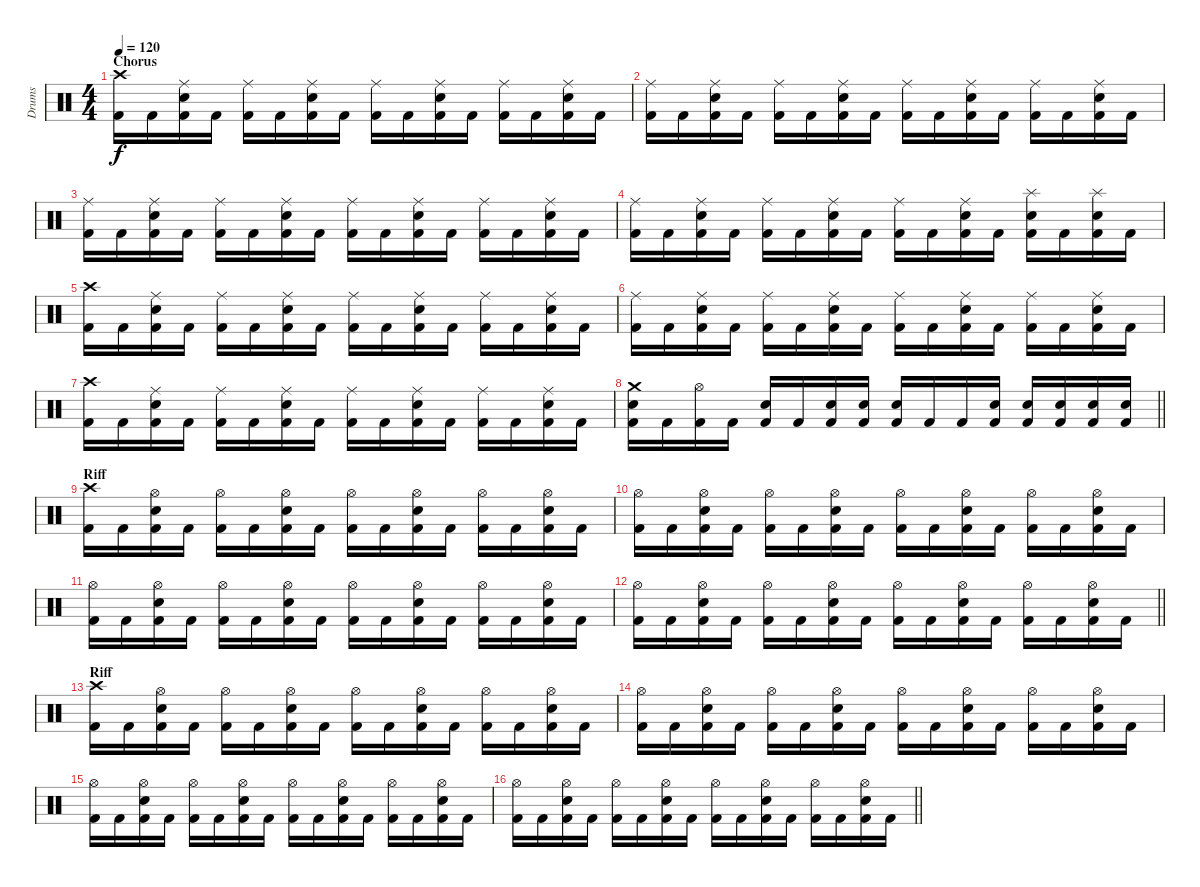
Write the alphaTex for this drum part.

\track ("Drums" "Drums") {instrument percussion}
\staff {score}
\articulation defaults
\ts (4 4)
\section ("" "Chorus")
\tempo 120
\clef neutral
\ks c
("Crash high (hit)" "Kick (hit) 2").16{dy f} "Kick (hit) 2".16 ("Ride (middle)" "Snare (hit) 2" "Kick (hit) 2").16 "Kick (hit) 2".16 ("Ride (middle)" "Kick (hit) 2").16 "Kick (hit) 2".16 ("Ride (middle)" "Snare (hit) 2" "Kick (hit) 2").16 "Kick (hit) 2".16 ("Ride (middle)" "Kick (hit) 2").16 "Kick (hit) 2".16 ("Ride (middle)" "Snare (hit) 2" "Kick (hit) 2").16 "Kick (hit) 2".16 ("Ride (middle)" "Kick (hit) 2").16 "Kick (hit) 2".16 ("Ride (middle)" "Snare (hit) 2" "Kick (hit) 2").16 "Kick (hit) 2".16 |
("Ride (middle)" "Kick (hit) 2").16 "Kick (hit) 2".16 ("Ride (middle)" "Snare (hit) 2" "Kick (hit) 2").16 "Kick (hit) 2".16 ("Ride (middle)" "Kick (hit) 2").16 "Kick (hit) 2".16 ("Ride (middle)" "Snare (hit) 2" "Kick (hit) 2").16 "Kick (hit) 2".16 ("Ride (middle)" "Kick (hit) 2").16 "Kick (hit) 2".16 ("Ride (middle)" "Snare (hit) 2" "Kick (hit) 2").16 "Kick (hit) 2".16 ("Ride (middle)" "Kick (hit) 2").16 "Kick (hit) 2".16 ("Ride (middle)" "Snare (hit) 2" "Kick (hit) 2").16 "Kick (hit) 2".16 |
("Ride (middle)" "Kick (hit) 2").16 "Kick (hit) 2".16 ("Ride (middle)" "Snare (hit) 2" "Kick (hit) 2").16 "Kick (hit) 2".16 ("Ride (middle)" "Kick (hit) 2").16 "Kick (hit) 2".16 ("Ride (middle)" "Snare (hit) 2" "Kick (hit) 2").16 "Kick (hit) 2".16 ("Ride (middle)" "Kick (hit) 2").16 "Kick (hit) 2".16 ("Ride (middle)" "Snare (hit) 2" "Kick (hit) 2").16 "Kick (hit) 2".16 ("Ride (middle)" "Kick (hit) 2").16 "Kick (hit) 2".16 ("Ride (middle)" "Snare (hit) 2" "Kick (hit) 2").16 "Kick (hit) 2".16 |
("Ride (middle)" "Kick (hit) 2").16 "Kick (hit) 2".16 ("Ride (middle)" "Snare (hit) 2" "Kick (hit) 2").16 "Kick (hit) 2".16 ("Ride (middle)" "Kick (hit) 2").16 "Kick (hit) 2".16 ("Ride (middle)" "Snare (hit) 2" "Kick (hit) 2").16 "Kick (hit) 2".16 ("Ride (middle)" "Kick (hit) 2").16 "Kick (hit) 2".16 ("Ride (middle)" "Snare (hit) 2" "Kick (hit) 2").16 "Kick (hit) 2".16 ("Splash (hit)" "Snare (hit) 2" "Kick (hit) 2").16 "Kick (hit) 2".16 ("Splash (hit)" "Snare (hit) 2" "Kick (hit) 2").16 "Kick (hit) 2".16 |
("Crash high (hit)" "Kick (hit) 2").16 "Kick (hit) 2".16 ("Ride (middle)" "Snare (hit) 2" "Kick (hit) 2").16 "Kick (hit) 2".16 ("Ride (middle)" "Kick (hit) 2").16 "Kick (hit) 2".16 ("Ride (middle)" "Snare (hit) 2" "Kick (hit) 2").16 "Kick (hit) 2".16 ("Ride (middle)" "Kick (hit) 2").16 "Kick (hit) 2".16 ("Ride (middle)" "Snare (hit) 2" "Kick (hit) 2").16 "Kick (hit) 2".16 ("Ride (middle)" "Kick (hit) 2").16 "Kick (hit) 2".16 ("Ride (middle)" "Snare (hit) 2" "Kick (hit) 2").16 "Kick (hit) 2".16 |
("Ride (middle)" "Kick (hit) 2").16 "Kick (hit) 2".16 ("Ride (middle)" "Snare (hit) 2" "Kick (hit) 2").16 "Kick (hit) 2".16 ("Ride (middle)" "Kick (hit) 2").16 "Kick (hit) 2".16 ("Ride (middle)" "Snare (hit) 2" "Kick (hit) 2").16 "Kick (hit) 2".16 ("Ride (middle)" "Kick (hit) 2").16 "Kick (hit) 2".16 ("Ride (middle)" "Snare (hit) 2" "Kick (hit) 2").16 "Kick (hit) 2".16 ("Ride (middle)" "Kick (hit) 2").16 "Kick (hit) 2".16 ("Ride (middle)" "Snare (hit) 2" "Kick (hit) 2").16 "Kick (hit) 2".16 |
("Crash high (hit)" "Kick (hit) 2").16 "Kick (hit) 2".16 ("Ride (middle)" "Snare (hit) 2" "Kick (hit) 2").16 "Kick (hit) 2".16 ("Ride (middle)" "Kick (hit) 2").16 "Kick (hit) 2".16 ("Ride (middle)" "Snare (hit) 2" "Kick (hit) 2").16 "Kick (hit) 2".16 ("Ride (middle)" "Kick (hit) 2").16 "Kick (hit) 2".16 ("Ride (middle)" "Snare (hit) 2" "Kick (hit) 2").16 "Kick (hit) 2".16 ("Ride (middle)" "Kick (hit) 2").16 "Kick (hit) 2".16 ("Ride (middle)" "Snare (hit) 2" "Kick (hit) 2").16 "Kick (hit) 2".16 |
\barLineRight lightlight
("Crash medium (hit)" "Snare (hit) 2" "Kick (hit) 2").16 "Kick (hit) 2".16 ("Hi-Hat (open)" "Kick (hit) 2").16 "Kick (hit) 2".16 ("Snare (hit) 2" "Kick (hit) 2").16 "Kick (hit) 2".16 ("Snare (hit) 2" "Kick (hit) 2").16 ("Snare (hit) 2" "Kick (hit) 2").16 ("Snare (hit) 2" "Kick (hit) 2").16 "Kick (hit) 2".16 "Kick (hit) 2".16 ("Snare (hit) 2" "Kick (hit) 2").16 ("Snare (hit) 2" "Kick (hit) 2").16 ("Snare (hit) 2" "Kick (hit) 2").16 ("Snare (hit) 2" "Kick (hit) 2").16 ("Snare (hit) 2" "Kick (hit) 2").16 |
\section ("" "Riff")
("Crash high (hit)" "Kick (hit) 2").16 "Kick (hit) 2".16 ("Hi-Hat (open)" "Snare (hit) 2" "Kick (hit) 2").16 "Kick (hit) 2".16 ("Hi-Hat (open)" "Kick (hit) 2").16 "Kick (hit) 2".16 ("Hi-Hat (open)" "Snare (hit) 2" "Kick (hit) 2").16 "Kick (hit) 2".16 ("Hi-Hat (open)" "Kick (hit) 2").16 "Kick (hit) 2".16 ("Hi-Hat (open)" "Snare (hit) 2" "Kick (hit) 2").16 "Kick (hit) 2".16 ("Hi-Hat (open)" "Kick (hit) 2").16 "Kick (hit) 2".16 ("Hi-Hat (open)" "Snare (hit) 2" "Kick (hit) 2").16 "Kick (hit) 2".16 |
("Hi-Hat (open)" "Kick (hit) 2").16 "Kick (hit) 2".16 ("Hi-Hat (open)" "Snare (hit) 2" "Kick (hit) 2").16 "Kick (hit) 2".16 ("Hi-Hat (open)" "Kick (hit) 2").16 "Kick (hit) 2".16 ("Hi-Hat (open)" "Snare (hit) 2" "Kick (hit) 2").16 "Kick (hit) 2".16 ("Hi-Hat (open)" "Kick (hit) 2").16 "Kick (hit) 2".16 ("Hi-Hat (open)" "Snare (hit) 2" "Kick (hit) 2").16 "Kick (hit) 2".16 ("Hi-Hat (open)" "Kick (hit) 2").16 "Kick (hit) 2".16 ("Hi-Hat (open)" "Snare (hit) 2" "Kick (hit) 2").16 "Kick (hit) 2".16 |
("Hi-Hat (open)" "Kick (hit) 2").16 "Kick (hit) 2".16 ("Hi-Hat (open)" "Snare (hit) 2" "Kick (hit) 2").16 "Kick (hit) 2".16 ("Hi-Hat (open)" "Kick (hit) 2").16 "Kick (hit) 2".16 ("Hi-Hat (open)" "Snare (hit) 2" "Kick (hit) 2").16 "Kick (hit) 2".16 ("Hi-Hat (open)" "Kick (hit) 2").16 "Kick (hit) 2".16 ("Hi-Hat (open)" "Snare (hit) 2" "Kick (hit) 2").16 "Kick (hit) 2".16 ("Hi-Hat (open)" "Kick (hit) 2").16 "Kick (hit) 2".16 ("Hi-Hat (open)" "Snare (hit) 2" "Kick (hit) 2").16 "Kick (hit) 2".16 |
\barLineRight lightlight
("Hi-Hat (open)" "Kick (hit) 2").16 "Kick (hit) 2".16 ("Hi-Hat (open)" "Snare (hit) 2" "Kick (hit) 2").16 "Kick (hit) 2".16 ("Hi-Hat (open)" "Kick (hit) 2").16 "Kick (hit) 2".16 ("Hi-Hat (open)" "Snare (hit) 2" "Kick (hit) 2").16 "Kick (hit) 2".16 ("Hi-Hat (open)" "Kick (hit) 2").16 "Kick (hit) 2".16 ("Hi-Hat (open)" "Snare (hit) 2" "Kick (hit) 2").16 "Kick (hit) 2".16 ("Hi-Hat (open)" "Kick (hit) 2").16 "Kick (hit) 2".16 ("Hi-Hat (open)" "Snare (hit) 2" "Kick (hit) 2").16 "Kick (hit) 2".16 |
\section ("" "Riff")
("Crash high (hit)" "Kick (hit) 2").16 "Kick (hit) 2".16 ("Hi-Hat (open)" "Snare (hit) 2" "Kick (hit) 2").16 "Kick (hit) 2".16 ("Hi-Hat (open)" "Kick (hit) 2").16 "Kick (hit) 2".16 ("Hi-Hat (open)" "Snare (hit) 2" "Kick (hit) 2").16 "Kick (hit) 2".16 ("Hi-Hat (open)" "Kick (hit) 2").16 "Kick (hit) 2".16 ("Hi-Hat (open)" "Snare (hit) 2" "Kick (hit) 2").16 "Kick (hit) 2".16 ("Hi-Hat (open)" "Kick (hit) 2").16 "Kick (hit) 2".16 ("Hi-Hat (open)" "Snare (hit) 2" "Kick (hit) 2").16 "Kick (hit) 2".16 |
("Hi-Hat (open)" "Kick (hit) 2").16 "Kick (hit) 2".16 ("Hi-Hat (open)" "Snare (hit) 2" "Kick (hit) 2").16 "Kick (hit) 2".16 ("Hi-Hat (open)" "Kick (hit) 2").16 "Kick (hit) 2".16 ("Hi-Hat (open)" "Snare (hit) 2" "Kick (hit) 2").16 "Kick (hit) 2".16 ("Hi-Hat (open)" "Kick (hit) 2").16 "Kick (hit) 2".16 ("Hi-Hat (open)" "Snare (hit) 2" "Kick (hit) 2").16 "Kick (hit) 2".16 ("Hi-Hat (open)" "Kick (hit) 2").16 "Kick (hit) 2".16 ("Hi-Hat (open)" "Snare (hit) 2" "Kick (hit) 2").16 "Kick (hit) 2".16 |
("Hi-Hat (open)" "Kick (hit) 2").16 "Kick (hit) 2".16 ("Hi-Hat (open)" "Snare (hit) 2" "Kick (hit) 2").16 "Kick (hit) 2".16 ("Hi-Hat (open)" "Kick (hit) 2").16 "Kick (hit) 2".16 ("Hi-Hat (open)" "Snare (hit) 2" "Kick (hit) 2").16 "Kick (hit) 2".16 ("Hi-Hat (open)" "Kick (hit) 2").16 "Kick (hit) 2".16 ("Hi-Hat (open)" "Snare (hit) 2" "Kick (hit) 2").16 "Kick (hit) 2".16 ("Hi-Hat (open)" "Kick (hit) 2").16 "Kick (hit) 2".16 ("Hi-Hat (open)" "Snare (hit) 2" "Kick (hit) 2").16 "Kick (hit) 2".16 |
\barLineRight lightlight
("Hi-Hat (open)" "Kick (hit) 2").16 "Kick (hit) 2".16 ("Hi-Hat (open)" "Snare (hit) 2" "Kick (hit) 2").16 "Kick (hit) 2".16 ("Hi-Hat (open)" "Kick (hit) 2").16 "Kick (hit) 2".16 ("Hi-Hat (open)" "Snare (hit) 2" "Kick (hit) 2").16 "Kick (hit) 2".16 ("Hi-Hat (open)" "Kick (hit) 2").16 "Kick (hit) 2".16 ("Hi-Hat (open)" "Snare (hit) 2" "Kick (hit) 2").16 "Kick (hit) 2".16 ("Hi-Hat (open)" "Kick (hit) 2").16 "Kick (hit) 2".16 ("Hi-Hat (open)" "Snare (hit) 2" "Kick (hit) 2").16 "Kick (hit) 2".16
